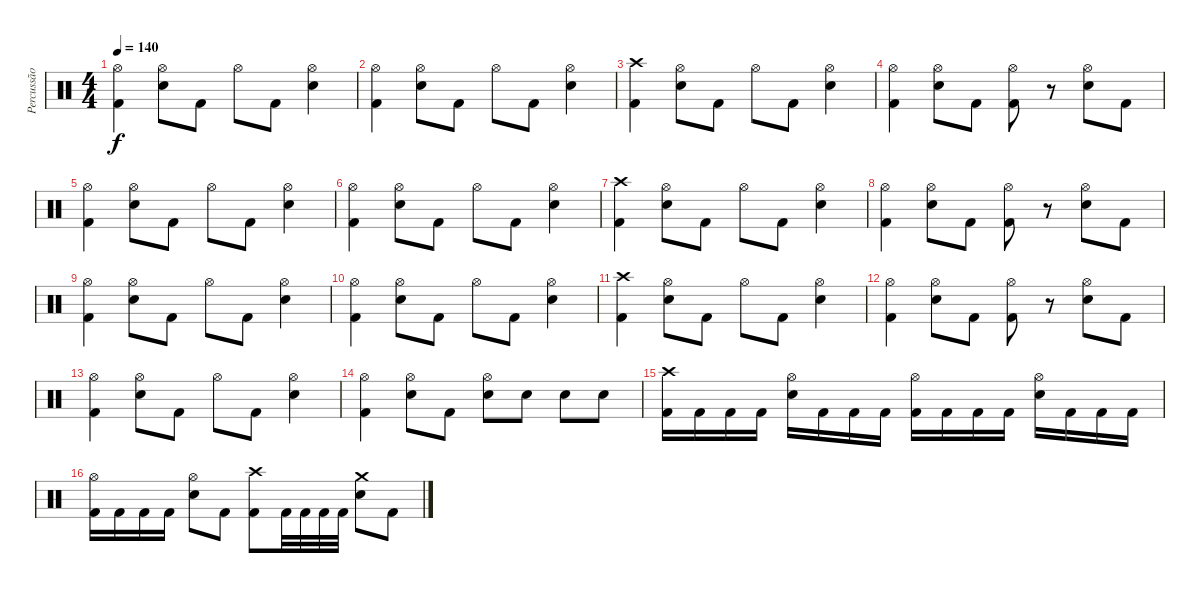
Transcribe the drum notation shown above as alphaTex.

\track ("Percussão" "Percussão") {instrument percussion}
\staff {score}
\articulation defaults
\ts (4 4)
\tempo 140
\clef neutral
\ks c
("Hi-Hat (open)" "Kick (hit) 2").4{dy f} ("Hi-Hat (open)" "Electric Snare (hit)").8 "Kick (hit) 2".8 "Hi-Hat (open)".8 "Kick (hit) 2".8 ("Hi-Hat (open)" "Electric Snare (hit)").4 |
("Hi-Hat (open)" "Kick (hit) 2").4 ("Hi-Hat (open)" "Electric Snare (hit)").8 "Kick (hit) 2".8 "Hi-Hat (open)".8 "Kick (hit) 2".8 ("Hi-Hat (open)" "Electric Snare (hit)").4 |
("Crash high (hit)" "Kick (hit) 2").4 ("Hi-Hat (open)" "Electric Snare (hit)").8 "Kick (hit) 2".8 "Hi-Hat (open)".8 "Kick (hit) 2".8 ("Hi-Hat (open)" "Electric Snare (hit)").4 |
("Hi-Hat (open)" "Kick (hit) 2").4 ("Hi-Hat (open)" "Electric Snare (hit)").8 "Kick (hit) 2".8 ("Hi-Hat (open)" "Kick (hit) 2").8 r.8 ("Hi-Hat (open)" "Electric Snare (hit)").8 "Kick (hit) 2".8 |
("Hi-Hat (open)" "Kick (hit) 2").4 ("Hi-Hat (open)" "Electric Snare (hit)").8 "Kick (hit) 2".8 "Hi-Hat (open)".8 "Kick (hit) 2".8 ("Hi-Hat (open)" "Electric Snare (hit)").4 |
("Hi-Hat (open)" "Kick (hit) 2").4 ("Hi-Hat (open)" "Electric Snare (hit)").8 "Kick (hit) 2".8 "Hi-Hat (open)".8 "Kick (hit) 2".8 ("Hi-Hat (open)" "Electric Snare (hit)").4 |
("Crash high (hit)" "Kick (hit) 2").4 ("Hi-Hat (open)" "Electric Snare (hit)").8 "Kick (hit) 2".8 "Hi-Hat (open)".8 "Kick (hit) 2".8 ("Hi-Hat (open)" "Electric Snare (hit)").4 |
("Hi-Hat (open)" "Kick (hit) 2").4 ("Hi-Hat (open)" "Electric Snare (hit)").8 "Kick (hit) 2".8 ("Hi-Hat (open)" "Kick (hit) 2").8 r.8 ("Hi-Hat (open)" "Electric Snare (hit)").8 "Kick (hit) 2".8 |
("Hi-Hat (open)" "Kick (hit) 2").4 ("Hi-Hat (open)" "Electric Snare (hit)").8 "Kick (hit) 2".8 "Hi-Hat (open)".8 "Kick (hit) 2".8 ("Hi-Hat (open)" "Electric Snare (hit)").4 |
("Hi-Hat (open)" "Kick (hit) 2").4 ("Hi-Hat (open)" "Electric Snare (hit)").8 "Kick (hit) 2".8 "Hi-Hat (open)".8 "Kick (hit) 2".8 ("Hi-Hat (open)" "Electric Snare (hit)").4 |
("Crash high (hit)" "Kick (hit) 2").4 ("Hi-Hat (open)" "Electric Snare (hit)").8 "Kick (hit) 2".8 "Hi-Hat (open)".8 "Kick (hit) 2".8 ("Hi-Hat (open)" "Electric Snare (hit)").4 |
("Hi-Hat (open)" "Kick (hit) 2").4 ("Hi-Hat (open)" "Electric Snare (hit)").8 "Kick (hit) 2".8 ("Hi-Hat (open)" "Kick (hit) 2").8 r.8 ("Hi-Hat (open)" "Electric Snare (hit)").8 "Kick (hit) 2".8 |
("Hi-Hat (open)" "Kick (hit) 2").4 ("Hi-Hat (open)" "Electric Snare (hit)").8 "Kick (hit) 2".8 "Hi-Hat (open)".8 "Kick (hit) 2".8 ("Hi-Hat (open)" "Electric Snare (hit)").4 |
("Hi-Hat (open)" "Kick (hit) 2").4 ("Hi-Hat (open)" "Electric Snare (hit)").8 "Kick (hit) 2".8 ("Hi-Hat (open)" "Electric Snare (hit)").8 "Electric Snare (hit)".8 "Electric Snare (hit)".8 "Electric Snare (hit)".8 |
("Crash high (hit)" "Kick (hit) 2").16 "Kick (hit) 2".16 "Kick (hit) 2".16 "Kick (hit) 2".16 ("Hi-Hat (open)" "Electric Snare (hit)").16 "Kick (hit) 2".16 "Kick (hit) 2".16 "Kick (hit) 2".16 ("Hi-Hat (open)" "Kick (hit) 2").16 "Kick (hit) 2".16 "Kick (hit) 2".16 "Kick (hit) 2".16 ("Hi-Hat (open)" "Electric Snare (hit)").16 "Kick (hit) 2".16 "Kick (hit) 2".16 "Kick (hit) 2".16 |
("Hi-Hat (open)" "Kick (hit) 2").16 "Kick (hit) 2".16 "Kick (hit) 2".16 "Kick (hit) 2".16 ("Hi-Hat (open)" "Electric Snare (hit)").8 "Kick (hit) 2".8 ("Crash high (hit)" "Kick (hit) 2").8 "Kick (hit) 2".32 "Kick (hit) 2".32 "Kick (hit) 2".32 "Kick (hit) 2".32 ("Crash medium (hit)" "Electric Snare (hit)").8 "Kick (hit) 2".8
